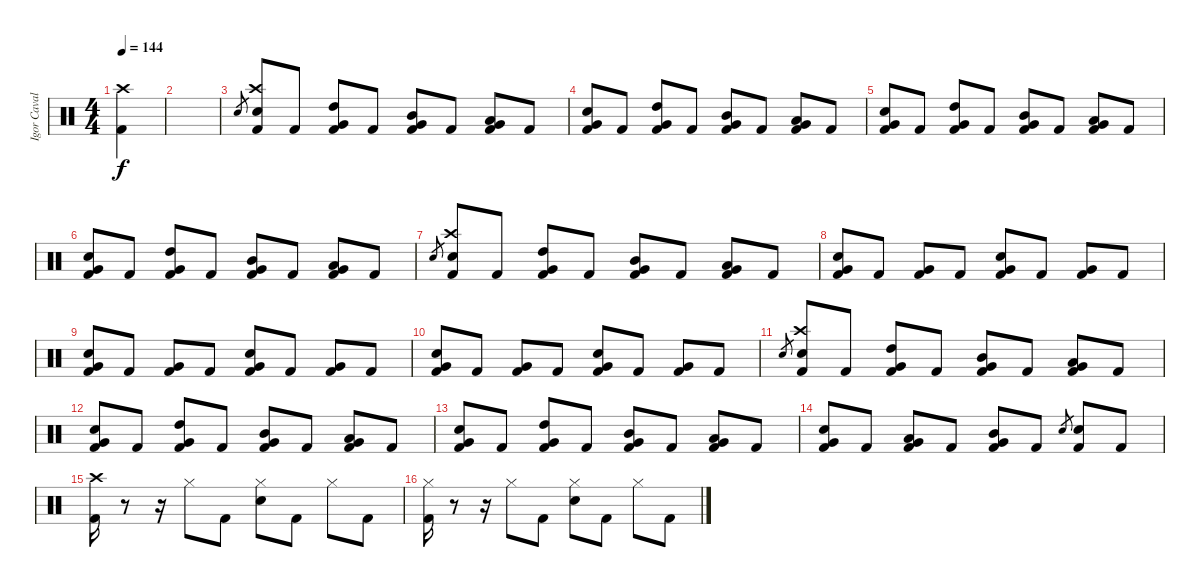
\track ("Igor Cavalera" "Igor Caval") {instrument percussion}
\staff {score}
\articulation defaults
\ts (4 4)
\tempo 144
\clef neutral
\ks c
("Kick (hit) 2" "Crash high (hit)").4{dy f} |
|
"Snare (hit) 2".8{gr} ("Kick (hit) 2" "Snare (hit) 2" "Crash high (hit)").8 "Kick (hit) 2".8 ("Kick (hit) 2" "High Tom (hit)" "Very Low Tom (hit)").8 "Kick (hit) 2".8 ("Kick (hit) 2" "Mid Tom (hit)" "Very Low Tom (hit)").8 "Kick (hit) 2".8 ("Kick (hit) 2" "Low Tom (hit)" "Very Low Tom (hit)").8 "Kick (hit) 2".8 |
("Kick (hit) 2" "Snare (hit) 2" "Very Low Tom (hit)").8 "Kick (hit) 2".8 ("Kick (hit) 2" "High Tom (hit)" "Very Low Tom (hit)").8 "Kick (hit) 2".8 ("Kick (hit) 2" "Mid Tom (hit)" "Very Low Tom (hit)").8 "Kick (hit) 2".8 ("Kick (hit) 2" "Low Tom (hit)" "Very Low Tom (hit)").8 "Kick (hit) 2".8 |
("Kick (hit) 2" "Snare (hit) 2" "Very Low Tom (hit)").8 "Kick (hit) 2".8 ("Kick (hit) 2" "High Tom (hit)" "Very Low Tom (hit)").8 "Kick (hit) 2".8 ("Kick (hit) 2" "Mid Tom (hit)" "Very Low Tom (hit)").8 "Kick (hit) 2".8 ("Kick (hit) 2" "Low Tom (hit)" "Very Low Tom (hit)").8 "Kick (hit) 2".8 |
("Kick (hit) 2" "Snare (hit) 2" "Very Low Tom (hit)").8 "Kick (hit) 2".8 ("Kick (hit) 2" "High Tom (hit)" "Very Low Tom (hit)").8 "Kick (hit) 2".8 ("Kick (hit) 2" "Mid Tom (hit)" "Very Low Tom (hit)").8 "Kick (hit) 2".8 ("Kick (hit) 2" "Low Tom (hit)" "Very Low Tom (hit)").8 "Kick (hit) 2".8 |
"Snare (hit) 2".8{gr} ("Kick (hit) 2" "Snare (hit) 2" "Crash high (hit)").8 "Kick (hit) 2".8 ("Kick (hit) 2" "High Tom (hit)" "Very Low Tom (hit)").8 "Kick (hit) 2".8 ("Kick (hit) 2" "Mid Tom (hit)" "Very Low Tom (hit)").8 "Kick (hit) 2".8 ("Kick (hit) 2" "Low Tom (hit)" "Very Low Tom (hit)").8 "Kick (hit) 2".8 |
("Kick (hit) 2" "Snare (hit) 2" "Very Low Tom (hit)").8 "Kick (hit) 2".8 ("Kick (hit) 2" "Very Low Tom (hit)").8 "Kick (hit) 2".8 ("Kick (hit) 2" "Electric Snare (hit)" "Very Low Tom (hit)").8 "Kick (hit) 2".8 ("Kick (hit) 2" "Very Low Tom (hit)").8 "Kick (hit) 2".8 |
("Kick (hit) 2" "Snare (hit) 2" "Very Low Tom (hit)").8 "Kick (hit) 2".8 ("Kick (hit) 2" "Very Low Tom (hit)").8 "Kick (hit) 2".8 ("Kick (hit) 2" "Electric Snare (hit)" "Very Low Tom (hit)").8 "Kick (hit) 2".8 ("Kick (hit) 2" "Very Low Tom (hit)").8 "Kick (hit) 2".8 |
("Kick (hit) 2" "Snare (hit) 2" "Very Low Tom (hit)").8 "Kick (hit) 2".8 ("Kick (hit) 2" "Very Low Tom (hit)").8 "Kick (hit) 2".8 ("Kick (hit) 2" "Electric Snare (hit)" "Very Low Tom (hit)").8 "Kick (hit) 2".8 ("Kick (hit) 2" "Very Low Tom (hit)").8 "Kick (hit) 2".8 |
"Snare (hit) 2".8{gr} ("Kick (hit) 2" "Snare (hit) 2" "Crash high (hit)").8 "Kick (hit) 2".8 ("Kick (hit) 2" "High Tom (hit)" "Very Low Tom (hit)").8 "Kick (hit) 2".8 ("Kick (hit) 2" "Mid Tom (hit)" "Very Low Tom (hit)").8 "Kick (hit) 2".8 ("Kick (hit) 2" "Low Tom (hit)" "Very Low Tom (hit)").8 "Kick (hit) 2".8 |
("Kick (hit) 2" "Snare (hit) 2" "Very Low Tom (hit)").8 "Kick (hit) 2".8 ("Kick (hit) 2" "High Tom (hit)" "Very Low Tom (hit)").8 "Kick (hit) 2".8 ("Kick (hit) 2" "Mid Tom (hit)" "Very Low Tom (hit)").8 "Kick (hit) 2".8 ("Kick (hit) 2" "Low Tom (hit)" "Very Low Tom (hit)").8 "Kick (hit) 2".8 |
("Kick (hit) 2" "Snare (hit) 2" "Very Low Tom (hit)").8 "Kick (hit) 2".8 ("Kick (hit) 2" "High Tom (hit)" "Very Low Tom (hit)").8 "Kick (hit) 2".8 ("Kick (hit) 2" "Mid Tom (hit)" "Very Low Tom (hit)").8 "Kick (hit) 2".8 ("Kick (hit) 2" "Low Tom (hit)" "Very Low Tom (hit)").8 "Kick (hit) 2".8 |
("Kick (hit) 2" "Snare (hit) 2" "Very Low Tom (hit)").8 "Kick (hit) 2".8 ("Kick (hit) 2" "Low Tom (hit)" "Very Low Tom (hit)").8 "Kick (hit) 2".8 ("Kick (hit) 2" "Mid Tom (hit)" "Very Low Tom (hit)").8 "Kick (hit) 2".8 "Snare (hit) 2".8{gr} ("Kick (hit) 2" "Snare (hit) 2").8 "Kick (hit) 2".8 |
("Kick (hit) 2" "Crash high (hit)").16 r.8 r.16 "Hi-Hat (closed)".8 "Kick (hit) 2".8 ("Snare (hit) 2" "Hi-Hat (closed)").8 "Kick (hit) 2".8 "Hi-Hat (closed)".8 "Kick (hit) 2".8 |
("Kick (hit) 2" "Hi-Hat (closed)").16 r.8 r.16 "Hi-Hat (closed)".8 "Kick (hit) 2".8 ("Snare (hit) 2" "Hi-Hat (closed)").8 "Kick (hit) 2".8 "Hi-Hat (closed)".8 "Kick (hit) 2".8
